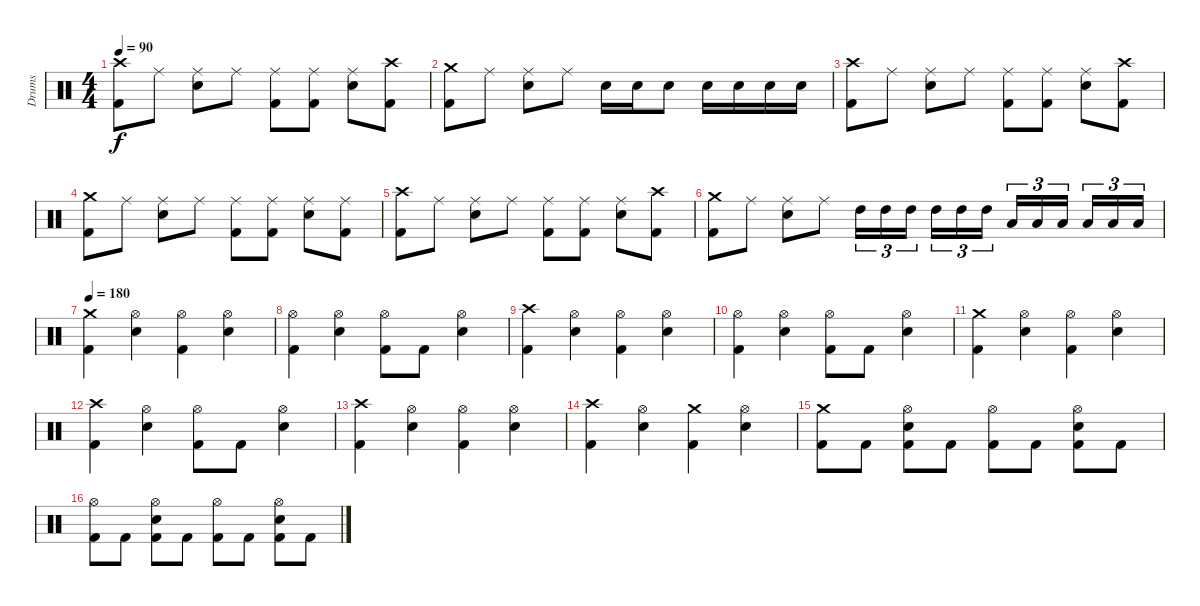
\track ("Drums" "Drums") {instrument percussion}
\staff {score}
\articulation defaults
\ts (4 4)
\tempo 90
\clef neutral
\ks c
("Crash high (hit)" "Kick (hit) 2").8{dy f} "Ride (middle)".8 ("Ride (middle)" "Electric Snare (hit)").8 "Ride (middle)".8 ("Ride (middle)" "Kick (hit) 2").8 ("Ride (middle)" "Kick (hit) 2").8 ("Ride (middle)" "Electric Snare (hit)").8 ("Crash high (hit)" "Kick (hit) 2").8 |
("Crash medium (hit)" "Kick (hit) 2").8 "Ride (middle)".8 ("Ride (middle)" "Electric Snare (hit)").8 "Ride (middle)".8 "Electric Snare (hit)".16 "Electric Snare (hit)".16 "Electric Snare (hit)".8 "Electric Snare (hit)".16 "Electric Snare (hit)".16 "Electric Snare (hit)".16 "Electric Snare (hit)".16 |
("Crash high (hit)" "Kick (hit) 2").8 "Ride (middle)".8 ("Ride (middle)" "Electric Snare (hit)").8 "Ride (middle)".8 ("Ride (middle)" "Kick (hit) 2").8 ("Ride (middle)" "Kick (hit) 2").8 ("Ride (middle)" "Electric Snare (hit)").8 ("Crash high (hit)" "Kick (hit) 2").8 |
("Crash medium (hit)" "Kick (hit) 2").8 "Ride (middle)".8 ("Ride (middle)" "Electric Snare (hit)").8 "Ride (middle)".8 ("Ride (middle)" "Kick (hit) 2").8 ("Ride (middle)" "Kick (hit) 2").8 ("Ride (middle)" "Electric Snare (hit)").8 ("Ride (middle)" "Kick (hit) 2").8 |
("Crash high (hit)" "Kick (hit) 2").8 "Ride (middle)".8 ("Ride (middle)" "Electric Snare (hit)").8 "Ride (middle)".8 ("Ride (middle)" "Kick (hit) 2").8 ("Ride (middle)" "Kick (hit) 2").8 ("Ride (middle)" "Electric Snare (hit)").8 ("Crash high (hit)" "Kick (hit) 2").8 |
("Crash medium (hit)" "Kick (hit) 2").8 "Ride (middle)".8 ("Ride (middle)" "Electric Snare (hit)").8 "Ride (middle)".8 "High Tom (hit)".16{tu (3 2)} "High Tom (hit)".16{tu (3 2)} "High Tom (hit)".16{tu (3 2)} "High Tom (hit)".16{tu (3 2)} "High Tom (hit)".16{tu (3 2)} "High Tom (hit)".16{tu (3 2)} "Low Tom (hit)".16{tu (3 2)} "Low Tom (hit)".16{tu (3 2)} "Low Tom (hit)".16{tu (3 2)} "Low Tom (hit)".16{tu (3 2)} "Low Tom (hit)".16{tu (3 2)} "Low Tom (hit)".16{tu (3 2)} |
\tempo 180
("Crash medium (hit)" "Kick (hit) 2").4 ("Hi-Hat (open)" "Electric Snare (hit)").4 ("Hi-Hat (open)" "Kick (hit) 2").4 ("Hi-Hat (open)" "Electric Snare (hit)").4 |
("Hi-Hat (open)" "Kick (hit) 2").4 ("Hi-Hat (open)" "Electric Snare (hit)").4 ("Hi-Hat (open)" "Kick (hit) 2").8 "Kick (hit) 2".8 ("Hi-Hat (open)" "Electric Snare (hit)").4 |
("Crash high (hit)" "Kick (hit) 2").4 ("Hi-Hat (open)" "Electric Snare (hit)").4 ("Hi-Hat (open)" "Kick (hit) 2").4 ("Hi-Hat (open)" "Electric Snare (hit)").4 |
("Hi-Hat (open)" "Kick (hit) 2").4 ("Hi-Hat (open)" "Electric Snare (hit)").4 ("Hi-Hat (open)" "Kick (hit) 2").8 "Kick (hit) 2".8 ("Hi-Hat (open)" "Electric Snare (hit)").4 |
("Crash medium (hit)" "Kick (hit) 2").4 ("Hi-Hat (open)" "Electric Snare (hit)").4 ("Hi-Hat (open)" "Kick (hit) 2").4 ("Hi-Hat (open)" "Electric Snare (hit)").4 |
("Crash high (hit)" "Kick (hit) 2").4 ("Hi-Hat (open)" "Electric Snare (hit)").4 ("Hi-Hat (open)" "Kick (hit) 2").8 "Kick (hit) 2".8 ("Hi-Hat (open)" "Electric Snare (hit)").4 |
("Crash high (hit)" "Kick (hit) 2").4 ("Hi-Hat (open)" "Electric Snare (hit)").4 ("Hi-Hat (open)" "Kick (hit) 2").4 ("Hi-Hat (open)" "Electric Snare (hit)").4 |
("Crash high (hit)" "Kick (hit) 2").4 ("Hi-Hat (open)" "Electric Snare (hit)").4 ("Crash medium (hit)" "Kick (hit) 2").4 ("Hi-Hat (open)" "Electric Snare (hit)").4 |
("Crash medium (hit)" "Kick (hit) 2").8 "Kick (hit) 2".8 ("Hi-Hat (open)" "Electric Snare (hit)" "Kick (hit) 2").8 "Kick (hit) 2".8 ("Hi-Hat (open)" "Kick (hit) 2").8 "Kick (hit) 2".8 ("Hi-Hat (open)" "Electric Snare (hit)" "Kick (hit) 2").8 "Kick (hit) 2".8 |
("Hi-Hat (open)" "Kick (hit) 2").8 "Kick (hit) 2".8 ("Hi-Hat (open)" "Electric Snare (hit)" "Kick (hit) 2").8 "Kick (hit) 2".8 ("Hi-Hat (open)" "Kick (hit) 2").8 "Kick (hit) 2".8 ("Hi-Hat (open)" "Electric Snare (hit)" "Kick (hit) 2").8 "Kick (hit) 2".8
